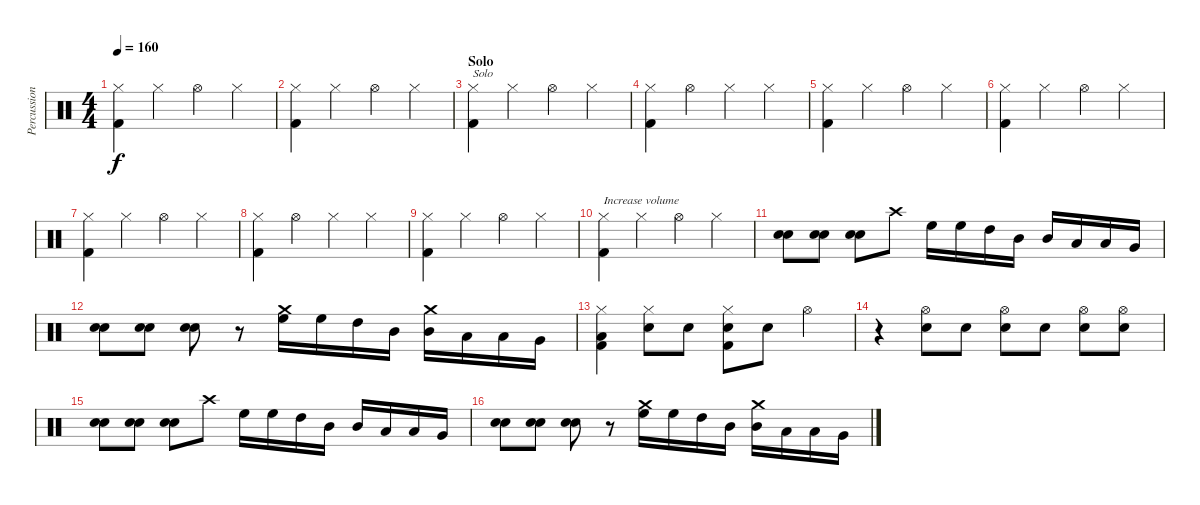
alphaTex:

\track ("Percussion" "Percussion") {instrument percussion}
\staff {score}
\articulation defaults
\ts (4 4)
\tempo 160
\clef neutral
\ks c
("Hi-Hat (closed)" "Kick (hit) 2").4{dy f} "Hi-Hat (closed)".4 "Hi-Hat (open)".4 "Hi-Hat (closed)".4 |
("Hi-Hat (closed)" "Kick (hit) 2").4 "Hi-Hat (closed)".4 "Hi-Hat (open)".4 "Hi-Hat (closed)".4 |
\section ("" "Solo")
("Hi-Hat (closed)" "Kick (hit) 2").4{txt "Solo" volume 8} "Hi-Hat (closed)".4 "Hi-Hat (open)".4 "Hi-Hat (closed)".4 |
("Hi-Hat (closed)" "Kick (hit) 2").4 "Hi-Hat (open)".4 "Hi-Hat (closed)".4 "Hi-Hat (closed)".4 |
("Hi-Hat (closed)" "Kick (hit) 2").4 "Hi-Hat (closed)".4 "Hi-Hat (open)".4 "Hi-Hat (closed)".4 |
("Hi-Hat (closed)" "Kick (hit) 2").4 "Hi-Hat (closed)".4 "Hi-Hat (open)".4 "Hi-Hat (closed)".4 |
("Hi-Hat (closed)" "Kick (hit) 2").4 "Hi-Hat (closed)".4 "Hi-Hat (open)".4 "Hi-Hat (closed)".4 |
("Hi-Hat (closed)" "Kick (hit) 2").4 "Hi-Hat (open)".4 "Hi-Hat (closed)".4 "Hi-Hat (closed)".4 |
("Hi-Hat (closed)" "Kick (hit) 2").4 "Hi-Hat (closed)".4 "Hi-Hat (open)".4 "Hi-Hat (closed)".4 |
("Hi-Hat (closed)" "Kick (hit) 2").4{txt "Increase volume" volume 16} "Hi-Hat (closed)".4 "Hi-Hat (open)".4 "Hi-Hat (closed)".4 |
("Snare (hit) 2" "Electric Snare (hit)").8 ("Snare (hit) 2" "Electric Snare (hit)").8 ("Snare (hit) 2" "Electric Snare (hit)").8 "Crash high (hit)".8 "High Floor Tom (hit)".16 "High Floor Tom (hit)".16 "High Tom (hit)".16 "Mid Tom (hit)".16 "Mid Tom (hit)".16 "Low Tom (hit)".16 "Low Tom (hit)".16 "Very Low Tom (hit)".16 |
("Snare (hit) 2" "Electric Snare (hit)").8 ("Snare (hit) 2" "Electric Snare (hit)").8 ("Snare (hit) 2" "Electric Snare (hit)").8 r.8 ("Crash medium (hit)" "High Floor Tom (hit)").16 "High Floor Tom (hit)".16 "High Tom (hit)".16 "Mid Tom (hit)".16 ("Crash medium (hit)" "Mid Tom (hit)").16 "Low Tom (hit)".16 "Low Tom (hit)".16 "Very Low Tom (hit)".16 |
("Hi-Hat (closed)" "Low Floor Tom (hit)" "Kick (hit) 2").4 ("Hi-Hat (closed)" "Electric Snare (hit)").8 "Electric Snare (hit)".8 ("Hi-Hat (closed)" "Electric Snare (hit)" "Kick (hit) 2").8 "Electric Snare (hit)".8 "Hi-Hat (open)".4 |
r.4 ("Hi-Hat (open)" "Electric Snare (hit)").8 "Electric Snare (hit)".8 ("Hi-Hat (open)" "Electric Snare (hit)").8 "Electric Snare (hit)".8 ("Hi-Hat (open)" "Electric Snare (hit)").8 ("Hi-Hat (open)" "Electric Snare (hit)").8 |
("Snare (hit) 2" "Electric Snare (hit)").8 ("Snare (hit) 2" "Electric Snare (hit)").8 ("Snare (hit) 2" "Electric Snare (hit)").8 "Crash high (hit)".8 "High Floor Tom (hit)".16 "High Floor Tom (hit)".16 "High Tom (hit)".16 "Mid Tom (hit)".16 "Mid Tom (hit)".16 "Low Tom (hit)".16 "Low Tom (hit)".16 "Very Low Tom (hit)".16 |
("Snare (hit) 2" "Electric Snare (hit)").8 ("Snare (hit) 2" "Electric Snare (hit)").8 ("Snare (hit) 2" "Electric Snare (hit)").8 r.8 ("Crash medium (hit)" "High Floor Tom (hit)").16 "High Floor Tom (hit)".16 "High Tom (hit)".16 "Mid Tom (hit)".16 ("Crash medium (hit)" "Mid Tom (hit)").16 "Low Tom (hit)".16 "Low Tom (hit)".16 "Very Low Tom (hit)".16
